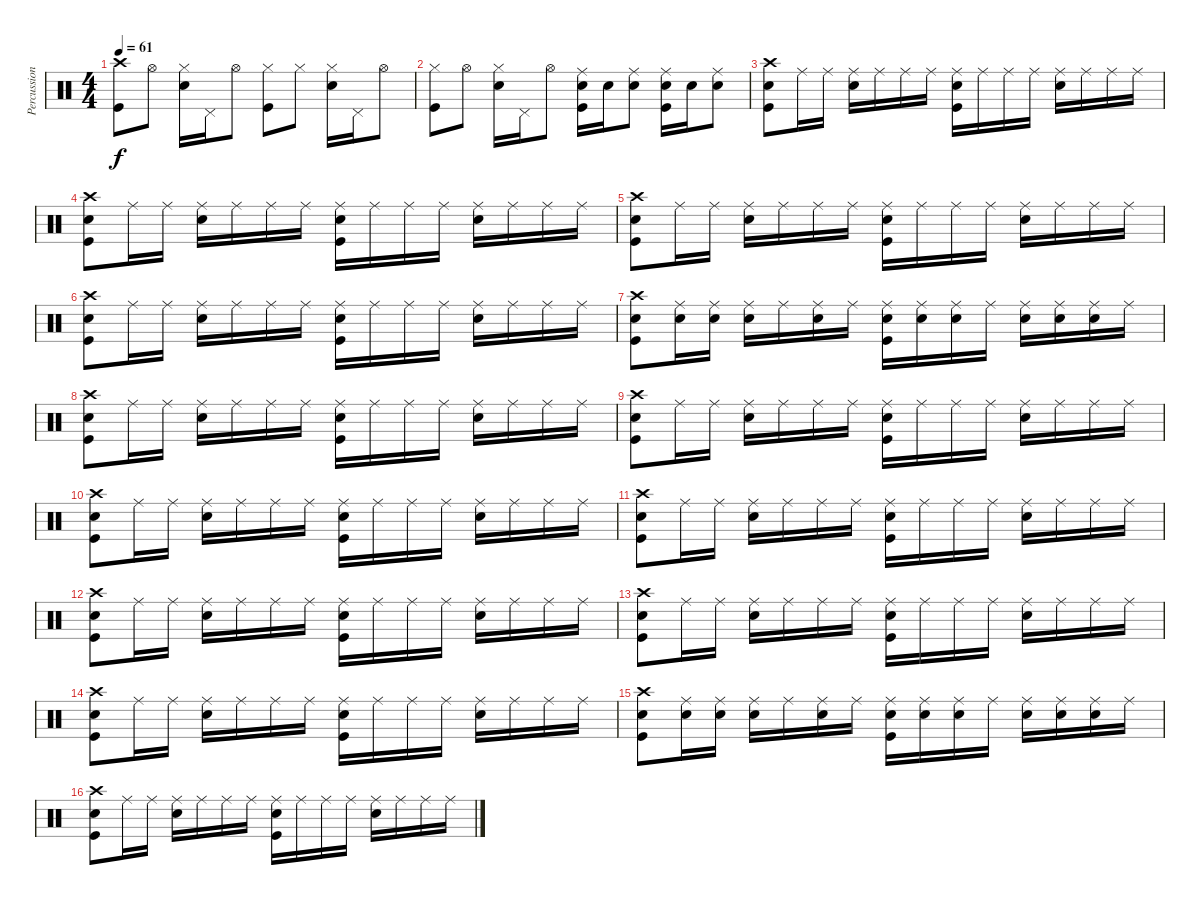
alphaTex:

\track ("Percussion" "Percussion") {instrument percussion}
\staff {score}
\articulation defaults
\ts (4 4)
\tempo 61
\clef neutral
\ks c
("Kick (hit)" "Crash high (hit)").8{dy f} "Hi-Hat (open)".8 ("Snare (hit) 2" "Hi-Hat (closed)").16 "Pedal Hi-Hat (hit)".16 "Hi-Hat (open)".8 ("Kick (hit)" "Hi-Hat (closed)").8 "Hi-Hat (closed)".8 ("Snare (hit) 2" "Hi-Hat (closed)").16 "Pedal Hi-Hat (hit)".16 "Hi-Hat (open)".8 |
("Kick (hit)" "Hi-Hat (closed)").8 "Hi-Hat (open)".8 ("Snare (hit) 2" "Hi-Hat (closed)").16 "Pedal Hi-Hat (hit)".16 "Hi-Hat (open)".8 ("Kick (hit)" "Snare (hit) 2" "Ride (middle)").16 "Snare (hit) 2".16 ("Snare (hit) 2" "Ride (middle)").8 ("Kick (hit)" "Snare (hit) 2" "Ride (middle)").16 "Snare (hit) 2".16 ("Snare (hit) 2" "Ride (middle)").8 |
("Kick (hit)" "Snare (hit) 2" "Crash high (hit)").8 "Ride (middle)".16 "Ride (middle)".16 ("Snare (hit) 2" "Ride (middle)").16 "Ride (middle)".16 "Ride (middle)".16 "Ride (middle)".16 ("Kick (hit)" "Snare (hit) 2" "Ride (middle)").16 "Ride (middle)".16 "Ride (middle)".16 "Ride (middle)".16 ("Snare (hit) 2" "Ride (middle)").16 "Ride (middle)".16 "Ride (middle)".16 "Ride (middle)".16 |
("Kick (hit)" "Snare (hit) 2" "Crash high (hit)").8 "Ride (middle)".16 "Ride (middle)".16 ("Snare (hit) 2" "Ride (middle)").16 "Ride (middle)".16 "Ride (middle)".16 "Ride (middle)".16 ("Kick (hit)" "Snare (hit) 2" "Ride (middle)").16 "Ride (middle)".16 "Ride (middle)".16 "Ride (middle)".16 ("Snare (hit) 2" "Ride (middle)").16 "Ride (middle)".16 "Ride (middle)".16 "Ride (middle)".16 |
("Kick (hit)" "Snare (hit) 2" "Crash high (hit)").8 "Ride (middle)".16 "Ride (middle)".16 ("Snare (hit) 2" "Ride (middle)").16 "Ride (middle)".16 "Ride (middle)".16 "Ride (middle)".16 ("Kick (hit)" "Snare (hit) 2" "Ride (middle)").16 "Ride (middle)".16 "Ride (middle)".16 "Ride (middle)".16 ("Snare (hit) 2" "Ride (middle)").16 "Ride (middle)".16 "Ride (middle)".16 "Ride (middle)".16 |
("Kick (hit)" "Snare (hit) 2" "Crash high (hit)").8 "Ride (middle)".16 "Ride (middle)".16 ("Snare (hit) 2" "Ride (middle)").16 "Ride (middle)".16 "Ride (middle)".16 "Ride (middle)".16 ("Kick (hit)" "Snare (hit) 2" "Ride (middle)").16 "Ride (middle)".16 "Ride (middle)".16 "Ride (middle)".16 ("Snare (hit) 2" "Ride (middle)").16 "Ride (middle)".16 "Ride (middle)".16 "Ride (middle)".16 |
("Kick (hit)" "Snare (hit) 2" "Crash high (hit)").8 ("Snare (hit) 2" "Ride (middle)").16 ("Snare (hit) 2" "Ride (middle)").16 ("Snare (hit) 2" "Ride (middle)").16 "Ride (middle)".16 ("Snare (hit) 2" "Ride (middle)").16 "Ride (middle)".16 ("Kick (hit)" "Snare (hit) 2" "Ride (middle)").16 ("Snare (hit) 2" "Ride (middle)").16 ("Snare (hit) 2" "Ride (middle)").16 "Ride (middle)".16 ("Snare (hit) 2" "Ride (middle)").16 ("Snare (hit) 2" "Ride (middle)").16 ("Snare (hit) 2" "Ride (middle)").16 "Ride (middle)".16 |
("Kick (hit)" "Snare (hit) 2" "Crash high (hit)").8 "Ride (middle)".16 "Ride (middle)".16 ("Snare (hit) 2" "Ride (middle)").16 "Ride (middle)".16 "Ride (middle)".16 "Ride (middle)".16 ("Kick (hit)" "Snare (hit) 2" "Ride (middle)").16 "Ride (middle)".16 "Ride (middle)".16 "Ride (middle)".16 ("Snare (hit) 2" "Ride (middle)").16 "Ride (middle)".16 "Ride (middle)".16 "Ride (middle)".16 |
("Kick (hit)" "Snare (hit) 2" "Crash high (hit)").8 "Ride (middle)".16 "Ride (middle)".16 ("Snare (hit) 2" "Ride (middle)").16 "Ride (middle)".16 "Ride (middle)".16 "Ride (middle)".16 ("Kick (hit)" "Snare (hit) 2" "Ride (middle)").16 "Ride (middle)".16 "Ride (middle)".16 "Ride (middle)".16 ("Snare (hit) 2" "Ride (middle)").16 "Ride (middle)".16 "Ride (middle)".16 "Ride (middle)".16 |
("Kick (hit)" "Snare (hit) 2" "Crash high (hit)").8 "Ride (middle)".16 "Ride (middle)".16 ("Snare (hit) 2" "Ride (middle)").16 "Ride (middle)".16 "Ride (middle)".16 "Ride (middle)".16 ("Kick (hit)" "Snare (hit) 2" "Ride (middle)").16 "Ride (middle)".16 "Ride (middle)".16 "Ride (middle)".16 ("Snare (hit) 2" "Ride (middle)").16 "Ride (middle)".16 "Ride (middle)".16 "Ride (middle)".16 |
("Kick (hit)" "Snare (hit) 2" "Crash high (hit)").8 "Ride (middle)".16 "Ride (middle)".16 ("Snare (hit) 2" "Ride (middle)").16 "Ride (middle)".16 "Ride (middle)".16 "Ride (middle)".16 ("Kick (hit)" "Snare (hit) 2" "Ride (middle)").16 "Ride (middle)".16 "Ride (middle)".16 "Ride (middle)".16 ("Snare (hit) 2" "Ride (middle)").16 "Ride (middle)".16 "Ride (middle)".16 "Ride (middle)".16 |
("Kick (hit)" "Snare (hit) 2" "Crash high (hit)").8 "Ride (middle)".16 "Ride (middle)".16 ("Snare (hit) 2" "Ride (middle)").16 "Ride (middle)".16 "Ride (middle)".16 "Ride (middle)".16 ("Kick (hit)" "Snare (hit) 2" "Ride (middle)").16 "Ride (middle)".16 "Ride (middle)".16 "Ride (middle)".16 ("Snare (hit) 2" "Ride (middle)").16 "Ride (middle)".16 "Ride (middle)".16 "Ride (middle)".16 |
("Kick (hit)" "Snare (hit) 2" "Crash high (hit)").8 "Ride (middle)".16 "Ride (middle)".16 ("Snare (hit) 2" "Ride (middle)").16 "Ride (middle)".16 "Ride (middle)".16 "Ride (middle)".16 ("Kick (hit)" "Snare (hit) 2" "Ride (middle)").16 "Ride (middle)".16 "Ride (middle)".16 "Ride (middle)".16 ("Snare (hit) 2" "Ride (middle)").16 "Ride (middle)".16 "Ride (middle)".16 "Ride (middle)".16 |
("Kick (hit)" "Snare (hit) 2" "Crash high (hit)").8 "Ride (middle)".16 "Ride (middle)".16 ("Snare (hit) 2" "Ride (middle)").16 "Ride (middle)".16 "Ride (middle)".16 "Ride (middle)".16 ("Kick (hit)" "Snare (hit) 2" "Ride (middle)").16 "Ride (middle)".16 "Ride (middle)".16 "Ride (middle)".16 ("Snare (hit) 2" "Ride (middle)").16 "Ride (middle)".16 "Ride (middle)".16 "Ride (middle)".16 |
("Kick (hit)" "Snare (hit) 2" "Crash high (hit)").8 ("Snare (hit) 2" "Ride (middle)").16 ("Snare (hit) 2" "Ride (middle)").16 ("Snare (hit) 2" "Ride (middle)").16 "Ride (middle)".16 ("Snare (hit) 2" "Ride (middle)").16 "Ride (middle)".16 ("Kick (hit)" "Snare (hit) 2" "Ride (middle)").16 ("Snare (hit) 2" "Ride (middle)").16 ("Snare (hit) 2" "Ride (middle)").16 "Ride (middle)".16 ("Snare (hit) 2" "Ride (middle)").16 ("Snare (hit) 2" "Ride (middle)").16 ("Snare (hit) 2" "Ride (middle)").16 "Ride (middle)".16 |
("Kick (hit)" "Snare (hit) 2" "Crash high (hit)").8 "Ride (middle)".16 "Ride (middle)".16 ("Snare (hit) 2" "Ride (middle)").16 "Ride (middle)".16 "Ride (middle)".16 "Ride (middle)".16 ("Kick (hit)" "Snare (hit) 2" "Ride (middle)").16 "Ride (middle)".16 "Ride (middle)".16 "Ride (middle)".16 ("Snare (hit) 2" "Ride (middle)").16 "Ride (middle)".16 "Ride (middle)".16 "Ride (middle)".16
